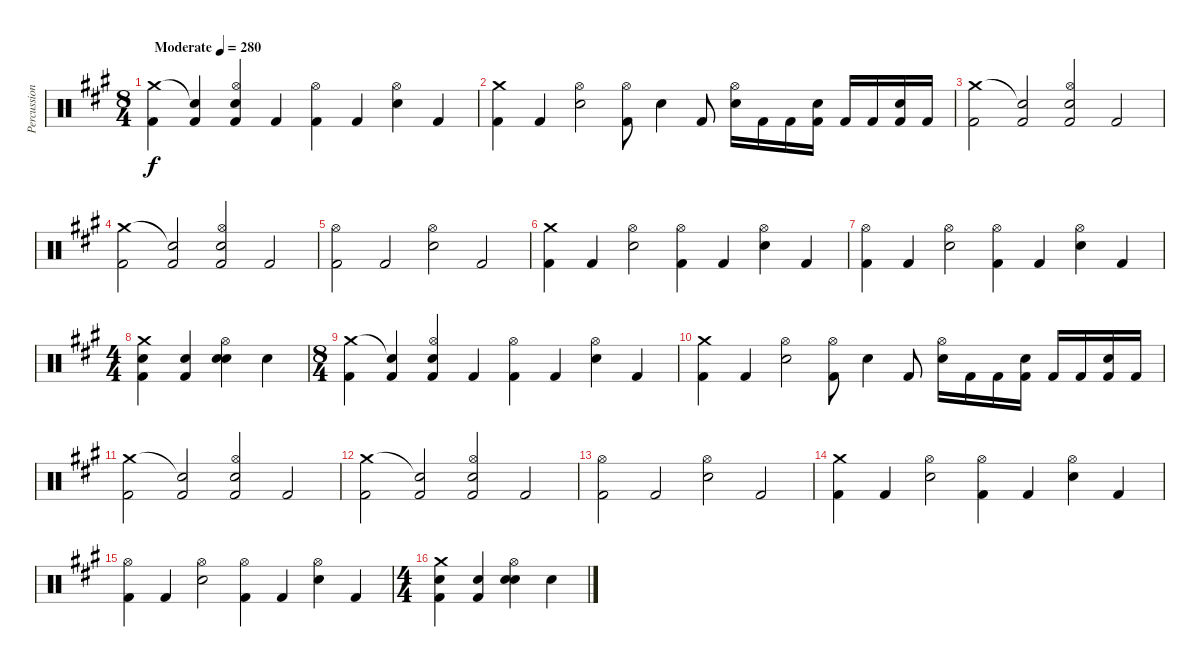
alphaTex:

\track ("Percussion" "Percussion") {instrument percussion}
\staff {score}
\articulation defaults
\ts (8 4)
\tempo (280 "Moderate")
\clef neutral
\ks a
("Crash medium (hit)" "Kick (hit) 2").4{dy f} ("Snare (hit)"{t} "Kick (hit) 2").4 ("Hi-Hat (open)" "Electric Snare (hit)" "Kick (hit) 2").4 "Kick (hit) 2".4 ("Hi-Hat (open)" "Kick (hit) 2").4 "Kick (hit) 2".4 ("Hi-Hat (open)" "Electric Snare (hit)").4 "Kick (hit) 2".4 |
("Crash medium (hit)" "Kick (hit) 2").4 "Kick (hit) 2".4 ("Hi-Hat (open)" "Electric Snare (hit)").2 ("Hi-Hat (open)" "Kick (hit) 2").8 "Electric Snare (hit)".4 "Kick (hit) 2".8 ("Hi-Hat (open)" "Electric Snare (hit)").16 "Kick (hit) 2".16 "Kick (hit) 2".16 ("Electric Snare (hit)" "Kick (hit) 2").16 "Kick (hit) 2".16 "Kick (hit) 2".16 ("Electric Snare (hit)" "Kick (hit) 2").16 "Kick (hit) 2".16 |
("Crash medium (hit)" "Kick (hit) 2").2 ("Snare (hit)"{t} "Kick (hit) 2").2 ("Hi-Hat (open)" "Electric Snare (hit)" "Kick (hit) 2").2 "Kick (hit) 2".2 |
("Crash medium (hit)" "Kick (hit) 2").2 ("Snare (hit)"{t} "Kick (hit) 2").2 ("Hi-Hat (open)" "Electric Snare (hit)" "Kick (hit) 2").2 "Kick (hit) 2".2 |
("Hi-Hat (open)" "Kick (hit) 2").2 "Kick (hit) 2".2 ("Hi-Hat (open)" "Electric Snare (hit)").2 "Kick (hit) 2".2 |
("Crash medium (hit)" "Kick (hit) 2").4 "Kick (hit) 2".4 ("Hi-Hat (open)" "Electric Snare (hit)").2 ("Hi-Hat (open)" "Kick (hit) 2").4 "Kick (hit) 2".4 ("Hi-Hat (open)" "Electric Snare (hit)").4 "Kick (hit) 2".4 |
("Hi-Hat (open)" "Kick (hit) 2").4 "Kick (hit) 2".4 ("Hi-Hat (open)" "Electric Snare (hit)").2 ("Hi-Hat (open)" "Kick (hit) 2").4 "Kick (hit) 2".4 ("Hi-Hat (open)" "Electric Snare (hit)").4 "Kick (hit) 2".4 |
\ts (4 4)
("Crash medium (hit)" "Electric Snare (hit)" "Kick (hit) 2").4 ("Electric Snare (hit)" "Kick (hit) 2").4 ("Hi-Hat (open)" "Electric Snare (hit)" "Electric Snare (hit)").4 "Electric Snare (hit)".4 |
\ts (8 4)
("Crash medium (hit)" "Kick (hit) 2").4 ("Snare (hit)"{t} "Kick (hit) 2").4 ("Hi-Hat (open)" "Electric Snare (hit)" "Kick (hit) 2").4 "Kick (hit) 2".4 ("Hi-Hat (open)" "Kick (hit) 2").4 "Kick (hit) 2".4 ("Hi-Hat (open)" "Electric Snare (hit)").4 "Kick (hit) 2".4 |
("Crash medium (hit)" "Kick (hit) 2").4 "Kick (hit) 2".4 ("Hi-Hat (open)" "Electric Snare (hit)").2 ("Hi-Hat (open)" "Kick (hit) 2").8 "Electric Snare (hit)".4 "Kick (hit) 2".8 ("Hi-Hat (open)" "Electric Snare (hit)").16 "Kick (hit) 2".16 "Kick (hit) 2".16 ("Electric Snare (hit)" "Kick (hit) 2").16 "Kick (hit) 2".16 "Kick (hit) 2".16 ("Electric Snare (hit)" "Kick (hit) 2").16 "Kick (hit) 2".16 |
("Crash medium (hit)" "Kick (hit) 2").2 ("Snare (hit)"{t} "Kick (hit) 2").2 ("Hi-Hat (open)" "Electric Snare (hit)" "Kick (hit) 2").2 "Kick (hit) 2".2 |
("Crash medium (hit)" "Kick (hit) 2").2 ("Snare (hit)"{t} "Kick (hit) 2").2 ("Hi-Hat (open)" "Electric Snare (hit)" "Kick (hit) 2").2 "Kick (hit) 2".2 |
("Hi-Hat (open)" "Kick (hit) 2").2 "Kick (hit) 2".2 ("Hi-Hat (open)" "Electric Snare (hit)").2 "Kick (hit) 2".2 |
("Crash medium (hit)" "Kick (hit) 2").4 "Kick (hit) 2".4 ("Hi-Hat (open)" "Electric Snare (hit)").2 ("Hi-Hat (open)" "Kick (hit) 2").4 "Kick (hit) 2".4 ("Hi-Hat (open)" "Electric Snare (hit)").4 "Kick (hit) 2".4 |
("Hi-Hat (open)" "Kick (hit) 2").4 "Kick (hit) 2".4 ("Hi-Hat (open)" "Electric Snare (hit)").2 ("Hi-Hat (open)" "Kick (hit) 2").4 "Kick (hit) 2".4 ("Hi-Hat (open)" "Electric Snare (hit)").4 "Kick (hit) 2".4 |
\ts (4 4)
("Crash medium (hit)" "Electric Snare (hit)" "Kick (hit) 2").4 ("Electric Snare (hit)" "Kick (hit) 2").4 ("Hi-Hat (open)" "Electric Snare (hit)" "Electric Snare (hit)").4 "Electric Snare (hit)".4
